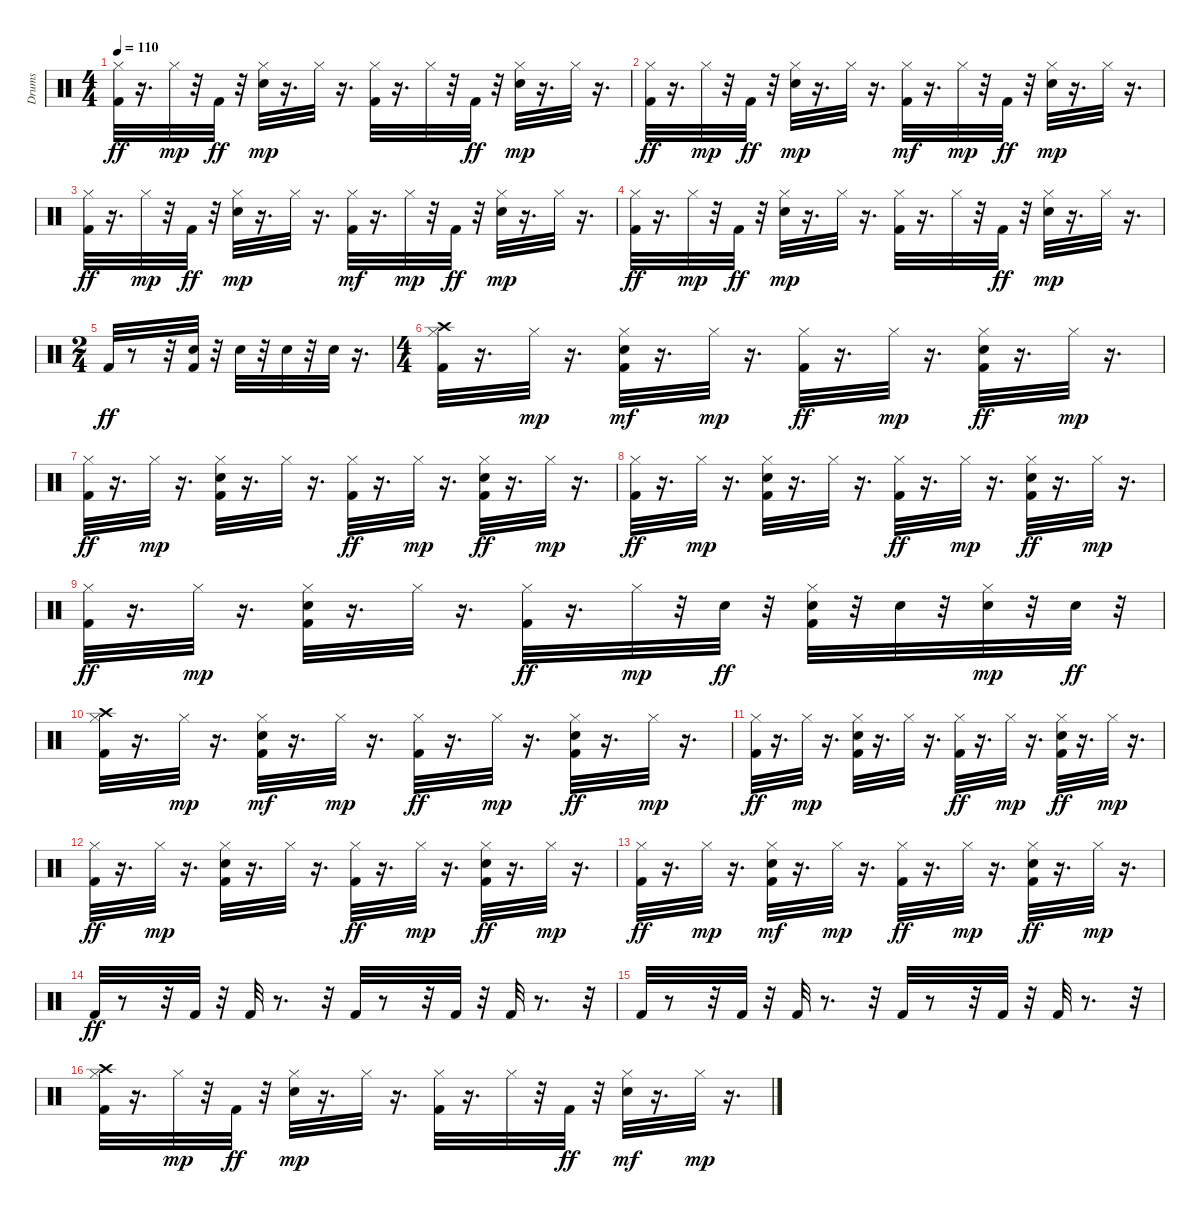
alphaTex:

\track ("Drums   " "Drums   ") {instrument percussion}
\staff {score}
\articulation defaults
\ts (4 4)
\tempo 110
\clef neutral
\ks c
("Hi-Hat (closed)" "Kick (hit) 2").32{dy ff} r.16{d} "Hi-Hat (closed)".32{dy mp} r.32 "Kick (hit) 2".32{dy ff} r.32 ("Snare (hit) 2" "Hi-Hat (closed)").32{dy mp} r.16{d} "Hi-Hat (closed)".32 r.16{d} ("Kick (hit) 2" "Hi-Hat (closed)").32 r.16{d} "Hi-Hat (closed)".32 r.32 "Kick (hit) 2".32{dy ff} r.32 ("Snare (hit) 2" "Hi-Hat (closed)").32{dy mp} r.16{d} "Hi-Hat (closed)".32 r.16{d} |
("Hi-Hat (closed)" "Kick (hit) 2").32{dy ff} r.16{d} "Hi-Hat (closed)".32{dy mp} r.32 "Kick (hit) 2".32{dy ff} r.32 ("Snare (hit) 2" "Hi-Hat (closed)").32{dy mp} r.16{d} "Hi-Hat (closed)".32 r.16{d} ("Kick (hit) 2" "Hi-Hat (closed)").32{dy mf} r.16{d} "Hi-Hat (closed)".32{dy mp} r.32 "Kick (hit) 2".32{dy ff} r.32 ("Snare (hit) 2" "Hi-Hat (closed)").32{dy mp} r.16{d} "Hi-Hat (closed)".32 r.16{d} |
("Hi-Hat (closed)" "Kick (hit) 2").32{dy ff} r.16{d} "Hi-Hat (closed)".32{dy mp} r.32 "Kick (hit) 2".32{dy ff} r.32 ("Snare (hit) 2" "Hi-Hat (closed)").32{dy mp} r.16{d} "Hi-Hat (closed)".32 r.16{d} ("Kick (hit) 2" "Hi-Hat (closed)").32{dy mf} r.16{d} "Hi-Hat (closed)".32{dy mp} r.32 "Kick (hit) 2".32{dy ff} r.32 ("Snare (hit) 2" "Hi-Hat (closed)").32{dy mp} r.16{d} "Hi-Hat (closed)".32 r.16{d} |
("Hi-Hat (closed)" "Kick (hit) 2").32{dy ff} r.16{d} "Hi-Hat (closed)".32{dy mp} r.32 "Kick (hit) 2".32{dy ff} r.32 ("Snare (hit) 2" "Hi-Hat (closed)").32{dy mp} r.16{d} "Hi-Hat (closed)".32 r.16{d} ("Kick (hit) 2" "Hi-Hat (closed)").32 r.16{d} "Hi-Hat (closed)".32 r.32 "Kick (hit) 2".32{dy ff} r.32 ("Snare (hit) 2" "Hi-Hat (closed)").32{dy mp} r.16{d} "Hi-Hat (closed)".32 r.16{d} |
\ts (2 4)
"Kick (hit) 2".32{dy ff} r.8 r.32 ("Snare (hit) 2" "Kick (hit) 2").32 r.32 "Snare (hit) 2".32 r.32 "Snare (hit) 2".32 r.32 "Snare (hit) 2".32 r.16{d} |
\ts (4 4)
("Crash high (hit)" "Hi-Hat (closed)" "Kick (hit) 2").32 r.16{d} "Hi-Hat (closed)".32{dy mp} r.16{d} ("Kick (hit) 2" "Snare (hit) 2" "Hi-Hat (closed)").32{dy mf} r.16{d} "Hi-Hat (closed)".32{dy mp} r.16{d} ("Hi-Hat (closed)" "Kick (hit) 2").32{dy ff} r.16{d} "Hi-Hat (closed)".32{dy mp} r.16{d} ("Kick (hit) 2" "Hi-Hat (closed)" "Snare (hit) 2").32{dy ff} r.16{d} "Hi-Hat (closed)".32{dy mp} r.16{d} |
("Hi-Hat (closed)" "Kick (hit) 2").32{dy ff} r.16{d} "Hi-Hat (closed)".32{dy mp} r.16{d} ("Kick (hit) 2" "Snare (hit) 2" "Hi-Hat (closed)").32 r.16{d} "Hi-Hat (closed)".32 r.16{d} ("Hi-Hat (closed)" "Kick (hit) 2").32{dy ff} r.16{d} "Hi-Hat (closed)".32{dy mp} r.16{d} ("Kick (hit) 2" "Hi-Hat (closed)" "Snare (hit) 2").32{dy ff} r.16{d} "Hi-Hat (closed)".32{dy mp} r.16{d} |
("Hi-Hat (closed)" "Kick (hit) 2").32{dy ff} r.16{d} "Hi-Hat (closed)".32{dy mp} r.16{d} ("Kick (hit) 2" "Snare (hit) 2" "Hi-Hat (closed)").32 r.16{d} "Hi-Hat (closed)".32 r.16{d} ("Hi-Hat (closed)" "Kick (hit) 2").32{dy ff} r.16{d} "Hi-Hat (closed)".32{dy mp} r.16{d} ("Kick (hit) 2" "Hi-Hat (closed)" "Snare (hit) 2").32{dy ff} r.16{d} "Hi-Hat (closed)".32{dy mp} r.16{d} |
("Hi-Hat (closed)" "Kick (hit) 2").32{dy ff} r.16{d} "Hi-Hat (closed)".32{dy mp} r.16{d} ("Kick (hit) 2" "Snare (hit) 2" "Hi-Hat (closed)").32 r.16{d} "Hi-Hat (closed)".32 r.16{d} ("Hi-Hat (closed)" "Kick (hit) 2").32{dy ff} r.16{d} "Hi-Hat (closed)".32{dy mp} r.32 "Snare (hit) 2".32{dy ff} r.32 ("Kick (hit) 2" "Hi-Hat (closed)" "Snare (hit) 2").32 r.32 "Snare (hit) 2".32 r.32 ("Snare (hit) 2" "Hi-Hat (closed)").32{dy mp} r.32 "Snare (hit) 2".32{dy ff} r.32 |
("Crash high (hit)" "Hi-Hat (closed)" "Kick (hit) 2").32 r.16{d} "Hi-Hat (closed)".32{dy mp} r.16{d} ("Kick (hit) 2" "Snare (hit) 2" "Hi-Hat (closed)").32{dy mf} r.16{d} "Hi-Hat (closed)".32{dy mp} r.16{d} ("Hi-Hat (closed)" "Kick (hit) 2").32{dy ff} r.16{d} "Hi-Hat (closed)".32{dy mp} r.16{d} ("Kick (hit) 2" "Hi-Hat (closed)" "Snare (hit) 2").32{dy ff} r.16{d} "Hi-Hat (closed)".32{dy mp} r.16{d} |
("Hi-Hat (closed)" "Kick (hit) 2").32{dy ff} r.16{d} "Hi-Hat (closed)".32{dy mp} r.16{d} ("Kick (hit) 2" "Snare (hit) 2" "Hi-Hat (closed)").32 r.16{d} "Hi-Hat (closed)".32 r.16{d} ("Hi-Hat (closed)" "Kick (hit) 2").32{dy ff} r.16{d} "Hi-Hat (closed)".32{dy mp} r.16{d} ("Kick (hit) 2" "Hi-Hat (closed)" "Snare (hit) 2").32{dy ff} r.16{d} "Hi-Hat (closed)".32{dy mp} r.16{d} |
("Hi-Hat (closed)" "Kick (hit) 2").32{dy ff} r.16{d} "Hi-Hat (closed)".32{dy mp} r.16{d} ("Kick (hit) 2" "Snare (hit) 2" "Hi-Hat (closed)").32 r.16{d} "Hi-Hat (closed)".32 r.16{d} ("Hi-Hat (closed)" "Kick (hit) 2").32{dy ff} r.16{d} "Hi-Hat (closed)".32{dy mp} r.16{d} ("Kick (hit) 2" "Hi-Hat (closed)" "Snare (hit) 2").32{dy ff} r.16{d} "Hi-Hat (closed)".32{dy mp} r.16{d} |
("Hi-Hat (closed)" "Kick (hit) 2").32{dy ff} r.16{d} "Hi-Hat (closed)".32{dy mp} r.16{d} ("Kick (hit) 2" "Snare (hit) 2" "Hi-Hat (closed)").32{dy mf} r.16{d} "Hi-Hat (closed)".32{dy mp} r.16{d} ("Hi-Hat (closed)" "Kick (hit) 2").32{dy ff} r.16{d} "Hi-Hat (closed)".32{dy mp} r.16{d} ("Kick (hit) 2" "Hi-Hat (closed)" "Snare (hit) 2").32{dy ff} r.16{d} "Hi-Hat (closed)".32{dy mp} r.16{d} |
"Kick (hit) 2".32{dy ff} r.8 r.32 "Kick (hit) 2".32 r.32 "Kick (hit) 2".32 r.8{d} r.32 "Kick (hit) 2".32 r.8 r.32 "Kick (hit) 2".32 r.32 "Kick (hit) 2".32 r.8{d} r.32 |
"Kick (hit) 2".32 r.8 r.32 "Kick (hit) 2".32 r.32 "Kick (hit) 2".32 r.8{d} r.32 "Kick (hit) 2".32 r.8 r.32 "Kick (hit) 2".32 r.32 "Kick (hit) 2".32 r.8{d} r.32 |
("Crash high (hit)" "Hi-Hat (closed)" "Kick (hit) 2").32 r.16{d} "Hi-Hat (closed)".32{dy mp} r.32 "Kick (hit) 2".32{dy ff} r.32 ("Snare (hit) 2" "Hi-Hat (closed)").32{dy mp} r.16{d} "Hi-Hat (closed)".32 r.16{d} ("Kick (hit) 2" "Hi-Hat (closed)").32 r.16{d} "Hi-Hat (closed)".32 r.32 "Kick (hit) 2".32{dy ff} r.32 ("Snare (hit) 2" "Hi-Hat (closed)").32{dy mf} r.16{d} "Hi-Hat (closed)".32{dy mp} r.16{d}
